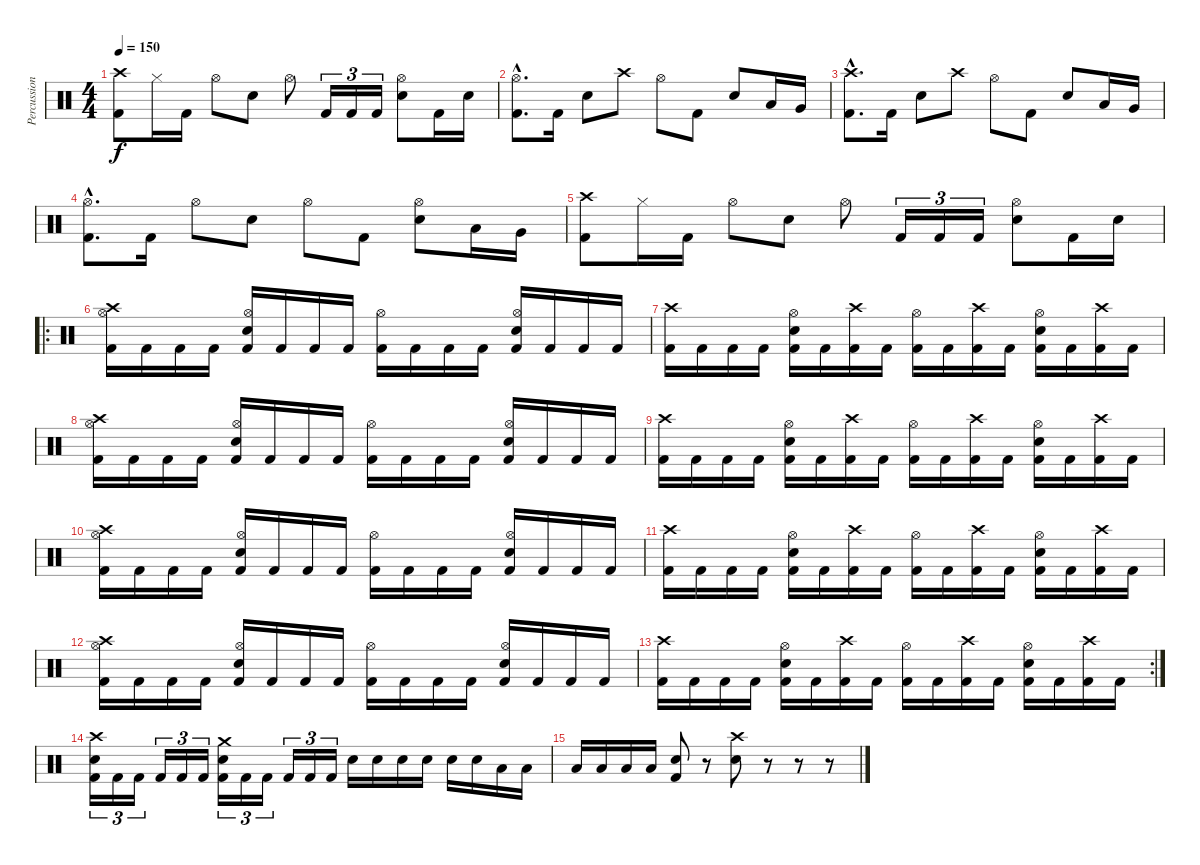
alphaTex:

\track ("Percussion" "Percussion") {instrument percussion}
\staff {score}
\articulation defaults
\ts (4 4)
\tempo 150
\clef neutral
\ks c
("Crash high (hit)" "Kick (hit) 2").8{dy f} "Hi-Hat (closed)".16 "Kick (hit) 2".16 "Hi-Hat (open)".8 "Electric Snare (hit)".8 "Hi-Hat (open)".8 "Kick (hit) 2".16{tu (3 2)} "Kick (hit) 2".16{tu (3 2)} "Kick (hit) 2".16{tu (3 2)} ("Hi-Hat (open)" "Electric Snare (hit)").8 "Kick (hit) 2".16 "Electric Snare (hit)".16 |
("Hi-Hat (open)"{hac} "Kick (hit) 2"{hac}).8{d} "Kick (hit) 2".16 "Electric Snare (hit)".8 "Crash high (hit)".8 "Hi-Hat (open)".8 "Kick (hit) 2".8 "Electric Snare (hit)".8 "Low Tom (hit)".16 "Very Low Tom (hit)".16 |
("Crash high (hit)"{hac} "Kick (hit) 2"{hac}).8{d} "Kick (hit) 2".16 "Electric Snare (hit)".8 "Crash high (hit)".8 "Hi-Hat (open)".8 "Kick (hit) 2".8 "Electric Snare (hit)".8 "Low Tom (hit)".16 "Very Low Tom (hit)".16 |
("Hi-Hat (open)"{hac} "Kick (hit) 2"{hac}).8{d} "Kick (hit) 2".16 "Hi-Hat (open)".8 "Electric Snare (hit)".8 "Hi-Hat (open)".8 "Kick (hit) 2".8 ("Hi-Hat (open)" "Electric Snare (hit)").8 "Low Tom (hit)".16 "Very Low Tom (hit)".16 |
("Crash high (hit)" "Kick (hit) 2").8 "Hi-Hat (closed)".16 "Kick (hit) 2".16 "Hi-Hat (open)".8 "Electric Snare (hit)".8 "Hi-Hat (open)".8 "Kick (hit) 2".16{tu (3 2)} "Kick (hit) 2".16{tu (3 2)} "Kick (hit) 2".16{tu (3 2)} ("Hi-Hat (open)" "Electric Snare (hit)").8 "Kick (hit) 2".16 "Electric Snare (hit)".16 |
\ro
("Crash high (hit)" "Hi-Hat (open)" "Kick (hit) 2").16 "Kick (hit) 2".16 "Kick (hit) 2".16 "Kick (hit) 2".16 ("Hi-Hat (open)" "Electric Snare (hit)" "Kick (hit) 2").16 "Kick (hit) 2".16 "Kick (hit) 2".16 "Kick (hit) 2".16 ("Hi-Hat (open)" "Kick (hit) 2").16 "Kick (hit) 2".16 "Kick (hit) 2".16 "Kick (hit) 2".16 ("Hi-Hat (open)" "Electric Snare (hit)" "Kick (hit) 2").16 "Kick (hit) 2".16 "Kick (hit) 2".16 "Kick (hit) 2".16 |
("Crash high (hit)" "Kick (hit) 2").16 "Kick (hit) 2".16 "Kick (hit) 2".16 "Kick (hit) 2".16 ("Hi-Hat (open)" "Electric Snare (hit)" "Kick (hit) 2").16 "Kick (hit) 2".16 ("Crash high (hit)" "Kick (hit) 2").16 "Kick (hit) 2".16 ("Hi-Hat (open)" "Kick (hit) 2").16 "Kick (hit) 2".16 ("Crash high (hit)" "Kick (hit) 2").16 "Kick (hit) 2".16 ("Hi-Hat (open)" "Electric Snare (hit)" "Kick (hit) 2").16 "Kick (hit) 2".16 ("Crash high (hit)" "Kick (hit) 2").16 "Kick (hit) 2".16 |
("Crash high (hit)" "Hi-Hat (open)" "Kick (hit) 2").16 "Kick (hit) 2".16 "Kick (hit) 2".16 "Kick (hit) 2".16 ("Hi-Hat (open)" "Electric Snare (hit)" "Kick (hit) 2").16 "Kick (hit) 2".16 "Kick (hit) 2".16 "Kick (hit) 2".16 ("Hi-Hat (open)" "Kick (hit) 2").16 "Kick (hit) 2".16 "Kick (hit) 2".16 "Kick (hit) 2".16 ("Hi-Hat (open)" "Electric Snare (hit)" "Kick (hit) 2").16 "Kick (hit) 2".16 "Kick (hit) 2".16 "Kick (hit) 2".16 |
("Crash high (hit)" "Kick (hit) 2").16 "Kick (hit) 2".16 "Kick (hit) 2".16 "Kick (hit) 2".16 ("Hi-Hat (open)" "Electric Snare (hit)" "Kick (hit) 2").16 "Kick (hit) 2".16 ("Crash high (hit)" "Kick (hit) 2").16 "Kick (hit) 2".16 ("Hi-Hat (open)" "Kick (hit) 2").16 "Kick (hit) 2".16 ("Crash high (hit)" "Kick (hit) 2").16 "Kick (hit) 2".16 ("Hi-Hat (open)" "Electric Snare (hit)" "Kick (hit) 2").16 "Kick (hit) 2".16 ("Crash high (hit)" "Kick (hit) 2").16 "Kick (hit) 2".16 |
("Crash high (hit)" "Hi-Hat (open)" "Kick (hit) 2").16 "Kick (hit) 2".16 "Kick (hit) 2".16 "Kick (hit) 2".16 ("Hi-Hat (open)" "Electric Snare (hit)" "Kick (hit) 2").16 "Kick (hit) 2".16 "Kick (hit) 2".16 "Kick (hit) 2".16 ("Hi-Hat (open)" "Kick (hit) 2").16 "Kick (hit) 2".16 "Kick (hit) 2".16 "Kick (hit) 2".16 ("Hi-Hat (open)" "Electric Snare (hit)" "Kick (hit) 2").16 "Kick (hit) 2".16 "Kick (hit) 2".16 "Kick (hit) 2".16 |
("Crash high (hit)" "Kick (hit) 2").16 "Kick (hit) 2".16 "Kick (hit) 2".16 "Kick (hit) 2".16 ("Hi-Hat (open)" "Electric Snare (hit)" "Kick (hit) 2").16 "Kick (hit) 2".16 ("Crash high (hit)" "Kick (hit) 2").16 "Kick (hit) 2".16 ("Hi-Hat (open)" "Kick (hit) 2").16 "Kick (hit) 2".16 ("Crash high (hit)" "Kick (hit) 2").16 "Kick (hit) 2".16 ("Hi-Hat (open)" "Electric Snare (hit)" "Kick (hit) 2").16 "Kick (hit) 2".16 ("Crash high (hit)" "Kick (hit) 2").16 "Kick (hit) 2".16 |
("Crash high (hit)" "Hi-Hat (open)" "Kick (hit) 2").16 "Kick (hit) 2".16 "Kick (hit) 2".16 "Kick (hit) 2".16 ("Hi-Hat (open)" "Electric Snare (hit)" "Kick (hit) 2").16 "Kick (hit) 2".16 "Kick (hit) 2".16 "Kick (hit) 2".16 ("Hi-Hat (open)" "Kick (hit) 2").16 "Kick (hit) 2".16 "Kick (hit) 2".16 "Kick (hit) 2".16 ("Hi-Hat (open)" "Electric Snare (hit)" "Kick (hit) 2").16 "Kick (hit) 2".16 "Kick (hit) 2".16 "Kick (hit) 2".16 |
\rc 2
("Crash high (hit)" "Kick (hit) 2").16 "Kick (hit) 2".16 "Kick (hit) 2".16 "Kick (hit) 2".16 ("Hi-Hat (open)" "Electric Snare (hit)" "Kick (hit) 2").16 "Kick (hit) 2".16 ("Crash high (hit)" "Kick (hit) 2").16 "Kick (hit) 2".16 ("Hi-Hat (open)" "Kick (hit) 2").16 "Kick (hit) 2".16 ("Crash high (hit)" "Kick (hit) 2").16 "Kick (hit) 2".16 ("Hi-Hat (open)" "Electric Snare (hit)" "Kick (hit) 2").16 "Kick (hit) 2".16 ("Crash high (hit)" "Kick (hit) 2").16 "Kick (hit) 2".16 |
("Crash high (hit)" "Electric Snare (hit)" "Kick (hit) 2").16{tu (3 2)} "Kick (hit) 2".16{tu (3 2)} "Kick (hit) 2".16{tu (3 2)} "Kick (hit) 2".16{tu (3 2)} "Kick (hit) 2".16{tu (3 2)} "Kick (hit) 2".16{tu (3 2)} ("Crash medium (hit)" "Electric Snare (hit)" "Kick (hit) 2").16{tu (3 2)} "Kick (hit) 2".16{tu (3 2)} "Kick (hit) 2".16{tu (3 2)} "Kick (hit) 2".16{tu (3 2)} "Kick (hit) 2".16{tu (3 2)} "Kick (hit) 2".16{tu (3 2)} "Electric Snare (hit)".16 "Electric Snare (hit)".16 "Electric Snare (hit)".16 "Electric Snare (hit)".16 "Electric Snare (hit)".16 "Electric Snare (hit)".16 "Low Tom (hit)".16 "Low Tom (hit)".16 |
"Low Tom (hit)".16 "Low Tom (hit)".16 "Low Tom (hit)".16 "Low Tom (hit)".16 ("Electric Snare (hit)" "Kick (hit) 2").8 r.8 ("Crash high (hit)" "Electric Snare (hit)").8 r.8 r.8 r.8
